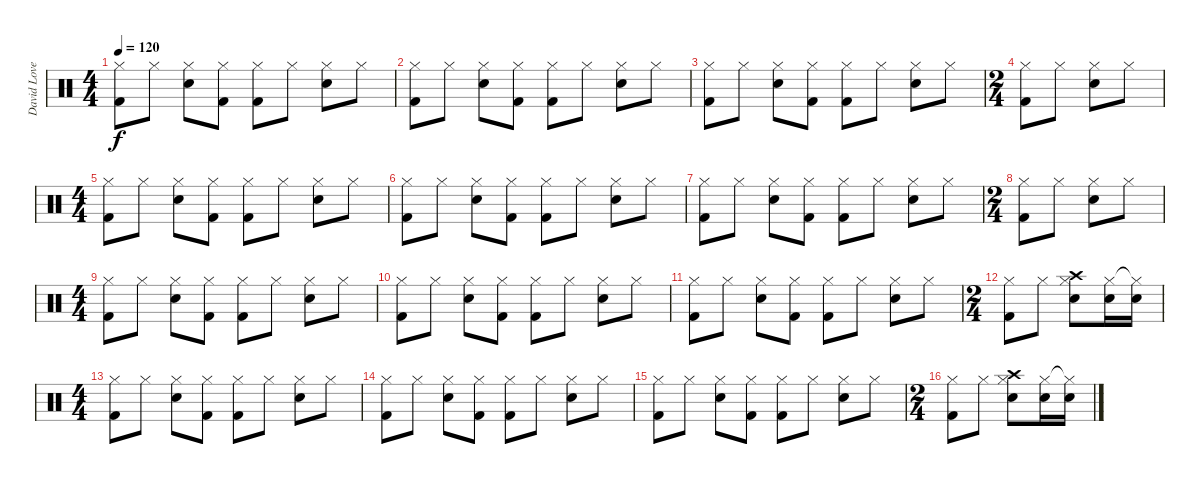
\track ("David Lovering" "David Love") {instrument percussion}
\staff {score}
\articulation defaults
\ts (4 4)
\tempo 120
\clef neutral
\ks c
("Hi-Hat (closed)" "Kick (hit) 2").8{dy f} "Hi-Hat (closed)".8 ("Hi-Hat (closed)" "Snare (hit) 2").8 ("Hi-Hat (closed)" "Kick (hit) 2").8 ("Hi-Hat (closed)" "Kick (hit) 2").8 "Hi-Hat (closed)".8 ("Hi-Hat (closed)" "Snare (hit) 2").8 "Hi-Hat (closed)".8 |
("Hi-Hat (closed)" "Kick (hit) 2").8 "Hi-Hat (closed)".8 ("Hi-Hat (closed)" "Snare (hit) 2").8 ("Hi-Hat (closed)" "Kick (hit) 2").8 ("Hi-Hat (closed)" "Kick (hit) 2").8 "Hi-Hat (closed)".8 ("Hi-Hat (closed)" "Snare (hit) 2").8 "Hi-Hat (closed)".8 |
("Hi-Hat (closed)" "Kick (hit) 2").8 "Hi-Hat (closed)".8 ("Hi-Hat (closed)" "Snare (hit) 2").8 ("Hi-Hat (closed)" "Kick (hit) 2").8 ("Hi-Hat (closed)" "Kick (hit) 2").8 "Hi-Hat (closed)".8 ("Hi-Hat (closed)" "Snare (hit) 2").8 "Hi-Hat (closed)".8 |
\ts (2 4)
("Hi-Hat (closed)" "Kick (hit) 2").8 "Hi-Hat (closed)".8 ("Hi-Hat (closed)" "Snare (hit) 2").8 "Hi-Hat (closed)".8 |
\ts (4 4)
("Hi-Hat (closed)" "Kick (hit) 2").8 "Hi-Hat (closed)".8 ("Hi-Hat (closed)" "Snare (hit) 2").8 ("Hi-Hat (closed)" "Kick (hit) 2").8 ("Hi-Hat (closed)" "Kick (hit) 2").8 "Hi-Hat (closed)".8 ("Hi-Hat (closed)" "Snare (hit) 2").8 "Hi-Hat (closed)".8 |
("Hi-Hat (closed)" "Kick (hit) 2").8 "Hi-Hat (closed)".8 ("Hi-Hat (closed)" "Snare (hit) 2").8 ("Hi-Hat (closed)" "Kick (hit) 2").8 ("Hi-Hat (closed)" "Kick (hit) 2").8 "Hi-Hat (closed)".8 ("Hi-Hat (closed)" "Snare (hit) 2").8 "Hi-Hat (closed)".8 |
("Hi-Hat (closed)" "Kick (hit) 2").8 "Hi-Hat (closed)".8 ("Hi-Hat (closed)" "Snare (hit) 2").8 ("Hi-Hat (closed)" "Kick (hit) 2").8 ("Hi-Hat (closed)" "Kick (hit) 2").8 "Hi-Hat (closed)".8 ("Hi-Hat (closed)" "Snare (hit) 2").8 "Hi-Hat (closed)".8 |
\ts (2 4)
("Hi-Hat (closed)" "Kick (hit) 2").8 "Hi-Hat (closed)".8 ("Hi-Hat (closed)" "Snare (hit) 2").8 "Hi-Hat (closed)".8 |
\ts (4 4)
("Hi-Hat (closed)" "Kick (hit) 2").8 "Hi-Hat (closed)".8 ("Hi-Hat (closed)" "Snare (hit) 2").8 ("Hi-Hat (closed)" "Kick (hit) 2").8 ("Hi-Hat (closed)" "Kick (hit) 2").8 "Hi-Hat (closed)".8 ("Hi-Hat (closed)" "Snare (hit) 2").8 "Hi-Hat (closed)".8 |
("Hi-Hat (closed)" "Kick (hit) 2").8 "Hi-Hat (closed)".8 ("Hi-Hat (closed)" "Snare (hit) 2").8 ("Hi-Hat (closed)" "Kick (hit) 2").8 ("Hi-Hat (closed)" "Kick (hit) 2").8 "Hi-Hat (closed)".8 ("Hi-Hat (closed)" "Snare (hit) 2").8 "Hi-Hat (closed)".8 |
("Hi-Hat (closed)" "Kick (hit) 2").8 "Hi-Hat (closed)".8 ("Hi-Hat (closed)" "Snare (hit) 2").8 ("Hi-Hat (closed)" "Kick (hit) 2").8 ("Hi-Hat (closed)" "Kick (hit) 2").8 "Hi-Hat (closed)".8 ("Hi-Hat (closed)" "Snare (hit) 2").8 "Hi-Hat (closed)".8 |
\ts (2 4)
("Hi-Hat (closed)" "Kick (hit) 2").8 "Hi-Hat (closed)".8 ("Hi-Hat (closed)" "Crash high (hit)" "Snare (hit) 2").8 ("Hi-Hat (closed)" "Snare (hit) 2").16 ("Hi-Hat (closed)"{t} "Snare (hit) 2").16 |
\ts (4 4)
("Hi-Hat (closed)" "Kick (hit) 2").8 "Hi-Hat (closed)".8 ("Hi-Hat (closed)" "Snare (hit) 2").8 ("Hi-Hat (closed)" "Kick (hit) 2").8 ("Hi-Hat (closed)" "Kick (hit) 2").8 "Hi-Hat (closed)".8 ("Hi-Hat (closed)" "Snare (hit) 2").8 "Hi-Hat (closed)".8 |
("Hi-Hat (closed)" "Kick (hit) 2").8 "Hi-Hat (closed)".8 ("Hi-Hat (closed)" "Snare (hit) 2").8 ("Hi-Hat (closed)" "Kick (hit) 2").8 ("Hi-Hat (closed)" "Kick (hit) 2").8 "Hi-Hat (closed)".8 ("Hi-Hat (closed)" "Snare (hit) 2").8 "Hi-Hat (closed)".8 |
("Hi-Hat (closed)" "Kick (hit) 2").8 "Hi-Hat (closed)".8 ("Hi-Hat (closed)" "Snare (hit) 2").8 ("Hi-Hat (closed)" "Kick (hit) 2").8 ("Hi-Hat (closed)" "Kick (hit) 2").8 "Hi-Hat (closed)".8 ("Hi-Hat (closed)" "Snare (hit) 2").8 "Hi-Hat (closed)".8 |
\ts (2 4)
("Hi-Hat (closed)" "Kick (hit) 2").8 "Hi-Hat (closed)".8 ("Hi-Hat (closed)" "Crash high (hit)" "Snare (hit) 2").8 ("Hi-Hat (closed)" "Snare (hit) 2").16 ("Hi-Hat (closed)"{t} "Snare (hit) 2").16
